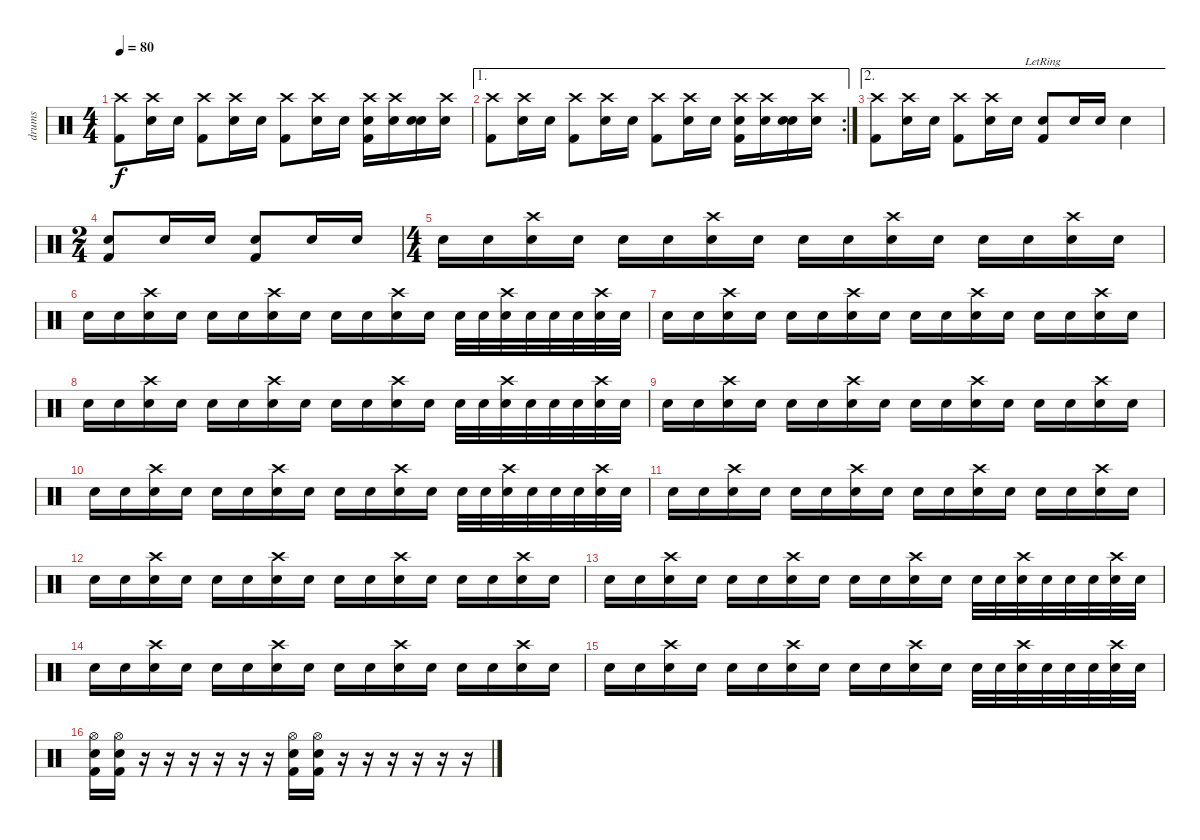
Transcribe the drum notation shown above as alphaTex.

\track ("drums" "drums") {instrument percussion}
\staff {score}
\articulation defaults
\ts (4 4)
\tempo 80
\clef neutral
\ks c
("Kick (hit) 2" "Crash high (hit)").8{dy f} ("Electric Snare (hit)" "Crash high (hit)").16 "Electric Snare (hit)".16 ("Kick (hit) 2" "Crash high (hit)").8 ("Electric Snare (hit)" "Crash high (hit)").16 "Electric Snare (hit)".16 ("Kick (hit) 2" "Crash high (hit)").8 ("Electric Snare (hit)" "Crash high (hit)").16 "Electric Snare (hit)".16 ("Kick (hit) 2" "Electric Snare (hit)" "Crash high (hit)").16 ("Electric Snare (hit)" "Crash high (hit)").16 ("Electric Snare (hit)" "Electric Snare (hit)").16 ("Electric Snare (hit)" "Crash high (hit)").16 |
\ae 1
\rc 2
("Kick (hit) 2" "Crash high (hit)").8 ("Electric Snare (hit)" "Crash high (hit)").16 "Electric Snare (hit)".16 ("Kick (hit) 2" "Crash high (hit)").8 ("Electric Snare (hit)" "Crash high (hit)").16 "Electric Snare (hit)".16 ("Kick (hit) 2" "Crash high (hit)").8 ("Electric Snare (hit)" "Crash high (hit)").16 "Electric Snare (hit)".16 ("Kick (hit) 2" "Electric Snare (hit)" "Crash high (hit)").16 ("Electric Snare (hit)" "Crash high (hit)").16 ("Electric Snare (hit)" "Electric Snare (hit)").16 ("Electric Snare (hit)" "Crash high (hit)").16 |
\ae 2
("Kick (hit) 2" "Crash high (hit)").8 ("Electric Snare (hit)" "Crash high (hit)").16 "Electric Snare (hit)".16 ("Kick (hit) 2" "Crash high (hit)").8 ("Electric Snare (hit)" "Crash high (hit)").16 "Electric Snare (hit)".16 ("Kick (hit) 2" "Electric Snare (hit)"{lr}).8 "Electric Snare (hit)".16 "Electric Snare (hit)".16 "Electric Snare (hit)".4 |
\ts (2 4)
("Electric Snare (hit)" "Kick (hit) 2").8 "Electric Snare (hit)".16 "Electric Snare (hit)".16 ("Electric Snare (hit)" "Kick (hit) 2").8 "Electric Snare (hit)".16 "Electric Snare (hit)".16 |
\ts (4 4)
"Electric Snare (hit)".16 "Electric Snare (hit)".16 ("Crash high (hit)" "Electric Snare (hit)").16 "Electric Snare (hit)".16 "Electric Snare (hit)".16 "Electric Snare (hit)".16 ("Crash high (hit)" "Electric Snare (hit)").16 "Electric Snare (hit)".16 "Electric Snare (hit)".16 "Electric Snare (hit)".16 ("Crash high (hit)" "Electric Snare (hit)").16 "Electric Snare (hit)".16 "Electric Snare (hit)".16 "Electric Snare (hit)".16 ("Crash high (hit)" "Electric Snare (hit)").16 "Electric Snare (hit)".16 |
"Electric Snare (hit)".16 "Electric Snare (hit)".16 ("Crash high (hit)" "Electric Snare (hit)").16 "Electric Snare (hit)".16 "Electric Snare (hit)".16 "Electric Snare (hit)".16 ("Crash high (hit)" "Electric Snare (hit)").16 "Electric Snare (hit)".16 "Electric Snare (hit)".16 "Electric Snare (hit)".16 ("Crash high (hit)" "Electric Snare (hit)").16 "Electric Snare (hit)".16 "Electric Snare (hit)".32 "Electric Snare (hit)".32 ("Crash high (hit)" "Electric Snare (hit)").32 "Electric Snare (hit)".32 "Electric Snare (hit)".32 "Electric Snare (hit)".32 ("Crash high (hit)" "Electric Snare (hit)").32 "Electric Snare (hit)".32 |
"Electric Snare (hit)".16 "Electric Snare (hit)".16 ("Crash high (hit)" "Electric Snare (hit)").16 "Electric Snare (hit)".16 "Electric Snare (hit)".16 "Electric Snare (hit)".16 ("Crash high (hit)" "Electric Snare (hit)").16 "Electric Snare (hit)".16 "Electric Snare (hit)".16 "Electric Snare (hit)".16 ("Crash high (hit)" "Electric Snare (hit)").16 "Electric Snare (hit)".16 "Electric Snare (hit)".16 "Electric Snare (hit)".16 ("Crash high (hit)" "Electric Snare (hit)").16 "Electric Snare (hit)".16 |
"Electric Snare (hit)".16 "Electric Snare (hit)".16 ("Crash high (hit)" "Electric Snare (hit)").16 "Electric Snare (hit)".16 "Electric Snare (hit)".16 "Electric Snare (hit)".16 ("Crash high (hit)" "Electric Snare (hit)").16 "Electric Snare (hit)".16 "Electric Snare (hit)".16 "Electric Snare (hit)".16 ("Crash high (hit)" "Electric Snare (hit)").16 "Electric Snare (hit)".16 "Electric Snare (hit)".32 "Electric Snare (hit)".32 ("Crash high (hit)" "Electric Snare (hit)").32 "Electric Snare (hit)".32 "Electric Snare (hit)".32 "Electric Snare (hit)".32 ("Crash high (hit)" "Electric Snare (hit)").32 "Electric Snare (hit)".32 |
"Electric Snare (hit)".16 "Electric Snare (hit)".16 ("Crash high (hit)" "Electric Snare (hit)").16 "Electric Snare (hit)".16 "Electric Snare (hit)".16 "Electric Snare (hit)".16 ("Crash high (hit)" "Electric Snare (hit)").16 "Electric Snare (hit)".16 "Electric Snare (hit)".16 "Electric Snare (hit)".16 ("Crash high (hit)" "Electric Snare (hit)").16 "Electric Snare (hit)".16 "Electric Snare (hit)".16 "Electric Snare (hit)".16 ("Crash high (hit)" "Electric Snare (hit)").16 "Electric Snare (hit)".16 |
"Electric Snare (hit)".16 "Electric Snare (hit)".16 ("Crash high (hit)" "Electric Snare (hit)").16 "Electric Snare (hit)".16 "Electric Snare (hit)".16 "Electric Snare (hit)".16 ("Crash high (hit)" "Electric Snare (hit)").16 "Electric Snare (hit)".16 "Electric Snare (hit)".16 "Electric Snare (hit)".16 ("Crash high (hit)" "Electric Snare (hit)").16 "Electric Snare (hit)".16 "Electric Snare (hit)".32 "Electric Snare (hit)".32 ("Crash high (hit)" "Electric Snare (hit)").32 "Electric Snare (hit)".32 "Electric Snare (hit)".32 "Electric Snare (hit)".32 ("Crash high (hit)" "Electric Snare (hit)").32 "Electric Snare (hit)".32 |
"Electric Snare (hit)".16 "Electric Snare (hit)".16 ("Crash high (hit)" "Electric Snare (hit)").16 "Electric Snare (hit)".16 "Electric Snare (hit)".16 "Electric Snare (hit)".16 ("Crash high (hit)" "Electric Snare (hit)").16 "Electric Snare (hit)".16 "Electric Snare (hit)".16 "Electric Snare (hit)".16 ("Crash high (hit)" "Electric Snare (hit)").16 "Electric Snare (hit)".16 "Electric Snare (hit)".16 "Electric Snare (hit)".16 ("Crash high (hit)" "Electric Snare (hit)").16 "Electric Snare (hit)".16 |
"Electric Snare (hit)".16 "Electric Snare (hit)".16 ("Crash high (hit)" "Electric Snare (hit)").16 "Electric Snare (hit)".16 "Electric Snare (hit)".16 "Electric Snare (hit)".16 ("Crash high (hit)" "Electric Snare (hit)").16 "Electric Snare (hit)".16 "Electric Snare (hit)".16 "Electric Snare (hit)".16 ("Crash high (hit)" "Electric Snare (hit)").16 "Electric Snare (hit)".16 "Electric Snare (hit)".16 "Electric Snare (hit)".16 ("Crash high (hit)" "Electric Snare (hit)").16 "Electric Snare (hit)".16 |
"Electric Snare (hit)".16 "Electric Snare (hit)".16 ("Crash high (hit)" "Electric Snare (hit)").16 "Electric Snare (hit)".16 "Electric Snare (hit)".16 "Electric Snare (hit)".16 ("Crash high (hit)" "Electric Snare (hit)").16 "Electric Snare (hit)".16 "Electric Snare (hit)".16 "Electric Snare (hit)".16 ("Crash high (hit)" "Electric Snare (hit)").16 "Electric Snare (hit)".16 "Electric Snare (hit)".32 "Electric Snare (hit)".32 ("Crash high (hit)" "Electric Snare (hit)").32 "Electric Snare (hit)".32 "Electric Snare (hit)".32 "Electric Snare (hit)".32 ("Crash high (hit)" "Electric Snare (hit)").32 "Electric Snare (hit)".32 |
"Electric Snare (hit)".16 "Electric Snare (hit)".16 ("Crash high (hit)" "Electric Snare (hit)").16 "Electric Snare (hit)".16 "Electric Snare (hit)".16 "Electric Snare (hit)".16 ("Crash high (hit)" "Electric Snare (hit)").16 "Electric Snare (hit)".16 "Electric Snare (hit)".16 "Electric Snare (hit)".16 ("Crash high (hit)" "Electric Snare (hit)").16 "Electric Snare (hit)".16 "Electric Snare (hit)".16 "Electric Snare (hit)".16 ("Crash high (hit)" "Electric Snare (hit)").16 "Electric Snare (hit)".16 |
"Electric Snare (hit)".16 "Electric Snare (hit)".16 ("Crash high (hit)" "Electric Snare (hit)").16 "Electric Snare (hit)".16 "Electric Snare (hit)".16 "Electric Snare (hit)".16 ("Crash high (hit)" "Electric Snare (hit)").16 "Electric Snare (hit)".16 "Electric Snare (hit)".16 "Electric Snare (hit)".16 ("Crash high (hit)" "Electric Snare (hit)").16 "Electric Snare (hit)".16 "Electric Snare (hit)".32 "Electric Snare (hit)".32 ("Crash high (hit)" "Electric Snare (hit)").32 "Electric Snare (hit)".32 "Electric Snare (hit)".32 "Electric Snare (hit)".32 ("Crash high (hit)" "Electric Snare (hit)").32 "Electric Snare (hit)".32 |
("Kick (hit) 2" "Hi-Hat (open)" "Electric Snare (hit)").16 ("Kick (hit) 2" "Hi-Hat (open)" "Electric Snare (hit)").16 r.16 r.16 r.16 r.16 r.16 r.16 ("Kick (hit) 2" "Hi-Hat (open)" "Electric Snare (hit)").16 ("Kick (hit) 2" "Hi-Hat (open)" "Electric Snare (hit)").16 r.16 r.16 r.16 r.16 r.16 r.16
